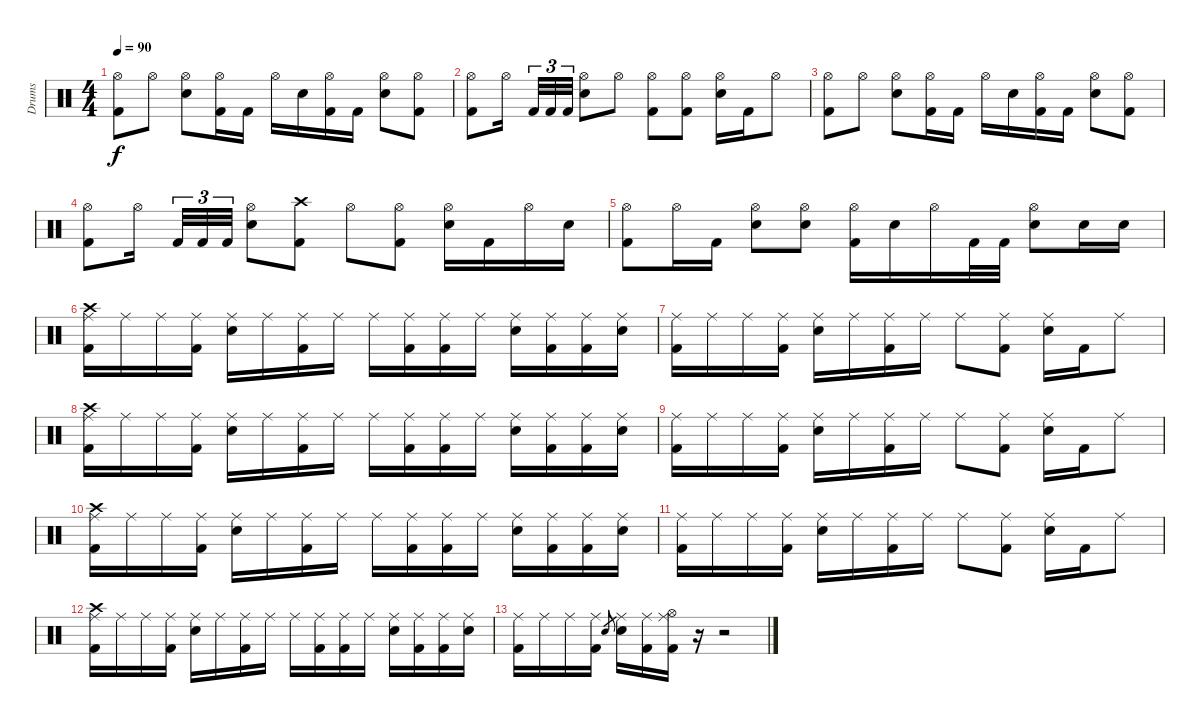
\track ("Drums" "Drums") {instrument percussion}
\staff {score}
\articulation defaults
\ts (4 4)
\tempo 90
\clef neutral
\ks c
("Hi-Hat (open)" "Kick (hit) 2").8{dy f} "Hi-Hat (open)".8 ("Hi-Hat (open)" "Electric Snare (hit)").8 ("Hi-Hat (open)" "Kick (hit) 2").16 "Kick (hit) 2".16 "Hi-Hat (open)".16 "Electric Snare (hit)".16 ("Hi-Hat (open)" "Kick (hit) 2").16 "Kick (hit) 2".16 ("Hi-Hat (open)" "Electric Snare (hit)").8 ("Hi-Hat (open)" "Kick (hit) 2").8 |
("Hi-Hat (open)" "Kick (hit) 2").8 "Hi-Hat (open)".16 "Kick (hit) 2".32{tu (3 2)} "Kick (hit) 2".32{tu (3 2)} "Kick (hit) 2".32{tu (3 2)} ("Hi-Hat (open)" "Electric Snare (hit)").8 "Hi-Hat (open)".8 ("Hi-Hat (open)" "Kick (hit) 2").8 ("Hi-Hat (open)" "Kick (hit) 2").8 ("Hi-Hat (open)" "Electric Snare (hit)").16 "Kick (hit) 2".16 "Hi-Hat (open)".8 |
("Hi-Hat (open)" "Kick (hit) 2").8 "Hi-Hat (open)".8 ("Hi-Hat (open)" "Electric Snare (hit)").8 ("Hi-Hat (open)" "Kick (hit) 2").16 "Kick (hit) 2".16 "Hi-Hat (open)".16 "Electric Snare (hit)".16 ("Hi-Hat (open)" "Kick (hit) 2").16 "Kick (hit) 2".16 ("Hi-Hat (open)" "Electric Snare (hit)").8 ("Hi-Hat (open)" "Kick (hit) 2").8 |
("Hi-Hat (open)" "Kick (hit) 2").8 "Hi-Hat (open)".16 "Kick (hit) 2".32{tu (3 2)} "Kick (hit) 2".32{tu (3 2)} "Kick (hit) 2".32{tu (3 2)} ("Hi-Hat (open)" "Electric Snare (hit)").8 ("Crash high (hit)" "Kick (hit) 2").8 "Hi-Hat (open)".8 ("Hi-Hat (open)" "Kick (hit) 2").8 ("Hi-Hat (open)" "Electric Snare (hit)").16 "Kick (hit) 2".16 "Hi-Hat (open)".16 "Electric Snare (hit)".16 |
("Hi-Hat (open)" "Kick (hit) 2").8 "Hi-Hat (open)".16 "Kick (hit) 2".16 ("Hi-Hat (open)" "Electric Snare (hit)").8 ("Hi-Hat (open)" "Electric Snare (hit)").8 ("Hi-Hat (open)" "Kick (hit) 2").16 "Electric Snare (hit)".16 "Hi-Hat (open)".16 "Kick (hit) 2".32 "Kick (hit) 2".32 ("Hi-Hat (open)" "Electric Snare (hit)").8 "Electric Snare (hit)".16 "Electric Snare (hit)".16 |
("Crash high (hit)" "Ride (middle)" "Kick (hit) 2").16 "Ride (middle)".16 "Ride (middle)".16 ("Ride (middle)" "Kick (hit) 2").16 ("Ride (middle)" "Electric Snare (hit)").16 "Ride (middle)".16 ("Ride (middle)" "Kick (hit) 2").16 "Ride (middle)".16 "Ride (middle)".16 ("Ride (middle)" "Kick (hit) 2").16 ("Ride (middle)" "Kick (hit) 2").16 "Ride (middle)".16 ("Ride (middle)" "Electric Snare (hit)").16 ("Ride (middle)" "Kick (hit) 2").16 ("Ride (middle)" "Kick (hit) 2").16 ("Ride (middle)" "Electric Snare (hit)").16 |
("Ride (middle)" "Kick (hit) 2").16 "Ride (middle)".16 "Ride (middle)".16 ("Ride (middle)" "Kick (hit) 2").16 ("Ride (middle)" "Electric Snare (hit)").16 "Ride (middle)".16 ("Ride (middle)" "Kick (hit) 2").16 "Ride (middle)".16 "Ride (middle)".8 ("Ride (middle)" "Kick (hit) 2").8 ("Ride (middle)" "Electric Snare (hit)").16 "Kick (hit) 2".16 "Ride (middle)".8 |
("Crash high (hit)" "Ride (middle)" "Kick (hit) 2").16 "Ride (middle)".16 "Ride (middle)".16 ("Ride (middle)" "Kick (hit) 2").16 ("Ride (middle)" "Electric Snare (hit)").16 "Ride (middle)".16 ("Ride (middle)" "Kick (hit) 2").16 "Ride (middle)".16 "Ride (middle)".16 ("Ride (middle)" "Kick (hit) 2").16 ("Ride (middle)" "Kick (hit) 2").16 "Ride (middle)".16 ("Ride (middle)" "Electric Snare (hit)").16 ("Ride (middle)" "Kick (hit) 2").16 ("Ride (middle)" "Kick (hit) 2").16 ("Ride (middle)" "Electric Snare (hit)").16 |
("Ride (middle)" "Kick (hit) 2").16 "Ride (middle)".16 "Ride (middle)".16 ("Ride (middle)" "Kick (hit) 2").16 ("Ride (middle)" "Electric Snare (hit)").16 "Ride (middle)".16 ("Ride (middle)" "Kick (hit) 2").16 "Ride (middle)".16 "Ride (middle)".8 ("Ride (middle)" "Kick (hit) 2").8 ("Ride (middle)" "Electric Snare (hit)").16 "Kick (hit) 2".16 "Ride (middle)".8 |
("Crash high (hit)" "Ride (middle)" "Kick (hit) 2").16 "Ride (middle)".16 "Ride (middle)".16 ("Ride (middle)" "Kick (hit) 2").16 ("Ride (middle)" "Electric Snare (hit)").16 "Ride (middle)".16 ("Ride (middle)" "Kick (hit) 2").16 "Ride (middle)".16 "Ride (middle)".16 ("Ride (middle)" "Kick (hit) 2").16 ("Ride (middle)" "Kick (hit) 2").16 "Ride (middle)".16 ("Ride (middle)" "Electric Snare (hit)").16 ("Ride (middle)" "Kick (hit) 2").16 ("Ride (middle)" "Kick (hit) 2").16 ("Ride (middle)" "Electric Snare (hit)").16 |
("Ride (middle)" "Kick (hit) 2").16 "Ride (middle)".16 "Ride (middle)".16 ("Ride (middle)" "Kick (hit) 2").16 ("Ride (middle)" "Electric Snare (hit)").16 "Ride (middle)".16 ("Ride (middle)" "Kick (hit) 2").16 "Ride (middle)".16 "Ride (middle)".8 ("Ride (middle)" "Kick (hit) 2").8 ("Ride (middle)" "Electric Snare (hit)").16 "Kick (hit) 2".16 "Ride (middle)".8 |
("Crash high (hit)" "Ride (middle)" "Kick (hit) 2").16 "Ride (middle)".16 "Ride (middle)".16 ("Ride (middle)" "Kick (hit) 2").16 ("Ride (middle)" "Electric Snare (hit)").16 "Ride (middle)".16 ("Ride (middle)" "Kick (hit) 2").16 "Ride (middle)".16 "Ride (middle)".16 ("Ride (middle)" "Kick (hit) 2").16 ("Ride (middle)" "Kick (hit) 2").16 "Ride (middle)".16 ("Ride (middle)" "Electric Snare (hit)").16 ("Ride (middle)" "Kick (hit) 2").16 ("Ride (middle)" "Kick (hit) 2").16 ("Ride (middle)" "Electric Snare (hit)").16 |
("Ride (middle)" "Kick (hit) 2").16 "Ride (middle)".16 "Ride (middle)".16 ("Ride (middle)" "Kick (hit) 2").16 "Electric Snare (hit)".8{gr} ("Ride (middle)" "Electric Snare (hit)").16 ("Ride (middle)" "Kick (hit) 2").16 ("Hi-Hat (open)" "Ride (middle)" "Kick (hit) 2").16 r.16 r.2
